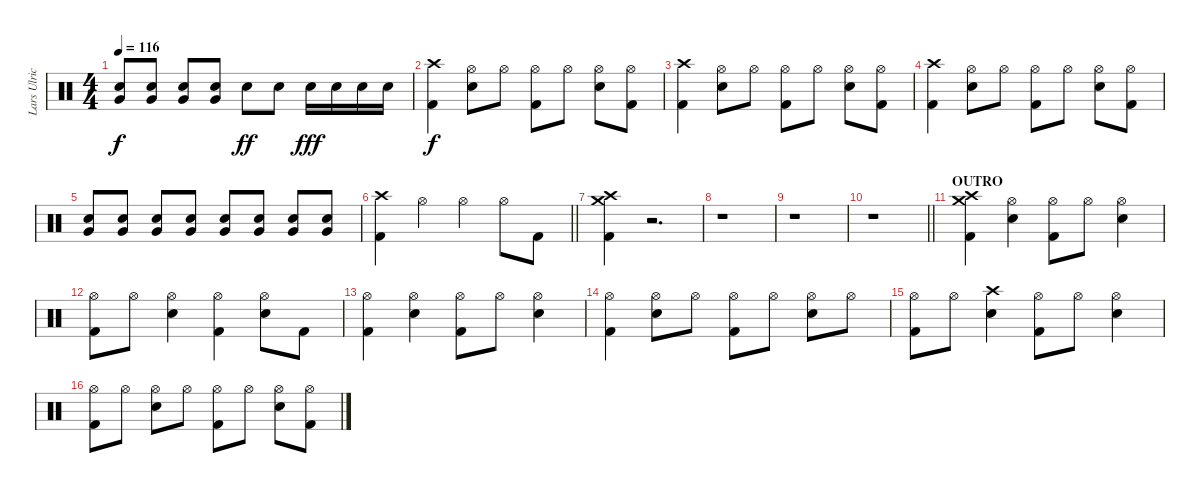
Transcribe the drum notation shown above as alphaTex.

\track ("Lars Ulrich - drums" "Lars Ulric") {instrument percussion}
\staff {score}
\articulation defaults
\ts (4 4)
\tempo 116
\clef neutral
\ks c
("Very Low Tom (hit)" "Snare (hit) 2").8{dy f} ("Very Low Tom (hit)" "Snare (hit) 2").8 ("Very Low Tom (hit)" "Snare (hit) 2").8 ("Very Low Tom (hit)" "Snare (hit) 2").8 "Snare (hit) 2".8{dy ff} "Snare (hit) 2".8 "Snare (hit) 2".16{dy fff} "Snare (hit) 2".16 "Snare (hit) 2".16 "Snare (hit) 2".16 |
("Crash high (hit)" "Kick (hit) 2").4{dy f} ("Hi-Hat (open)" "Snare (hit) 2").8 "Hi-Hat (open)".8 ("Hi-Hat (open)" "Kick (hit) 2").8 "Hi-Hat (open)".8 ("Hi-Hat (open)" "Snare (hit) 2").8 ("Hi-Hat (open)" "Kick (hit) 2").8 |
("Crash high (hit)" "Kick (hit) 2").4 ("Hi-Hat (open)" "Snare (hit) 2").8 "Hi-Hat (open)".8 ("Hi-Hat (open)" "Kick (hit) 2").8 "Hi-Hat (open)".8 ("Hi-Hat (open)" "Snare (hit) 2").8 ("Hi-Hat (open)" "Kick (hit) 2").8 |
("Crash high (hit)" "Kick (hit) 2").4 ("Hi-Hat (open)" "Snare (hit) 2").8 "Hi-Hat (open)".8 ("Hi-Hat (open)" "Kick (hit) 2").8 "Hi-Hat (open)".8 ("Hi-Hat (open)" "Snare (hit) 2").8 ("Hi-Hat (open)" "Kick (hit) 2").8 |
("Very Low Tom (hit)" "Snare (hit) 2").8 ("Very Low Tom (hit)" "Snare (hit) 2").8 ("Very Low Tom (hit)" "Snare (hit) 2").8 ("Very Low Tom (hit)" "Snare (hit) 2").8 ("Very Low Tom (hit)" "Snare (hit) 2").8 ("Very Low Tom (hit)" "Snare (hit) 2").8 ("Very Low Tom (hit)" "Snare (hit) 2").8 ("Very Low Tom (hit)" "Snare (hit) 2").8 |
\barLineRight lightlight
("Crash high (hit)" "Kick (hit) 2").4 "Hi-Hat (open)".4 "Hi-Hat (open)".4 "Hi-Hat (open)".8 "Kick (hit) 2".8 |
("Crash high (hit)" "Crash medium (hit)" "Kick (hit) 2").4 r.2{d} |
r.1 |
r.1 |
\barLineRight lightlight
r.1 |
\section ("" "OUTRO")
("Crash high (hit)" "Crash medium (hit)" "Kick (hit) 2").4 ("Hi-Hat (open)" "Snare (hit) 2").4 ("Hi-Hat (open)" "Kick (hit) 2").8 "Hi-Hat (open)".8 ("Hi-Hat (open)" "Snare (hit) 2").4 |
("Hi-Hat (open)" "Kick (hit) 2").8 "Hi-Hat (open)".8 ("Hi-Hat (open)" "Snare (hit) 2").4 ("Hi-Hat (open)" "Kick (hit) 2").4 ("Hi-Hat (open)" "Snare (hit) 2").8 "Kick (hit) 2".8 |
("Hi-Hat (open)" "Kick (hit) 2").4 ("Hi-Hat (open)" "Snare (hit) 2").4 ("Hi-Hat (open)" "Kick (hit) 2").8 "Hi-Hat (open)".8 ("Hi-Hat (open)" "Snare (hit) 2").4 |
("Hi-Hat (open)" "Kick (hit) 2").4 ("Hi-Hat (open)" "Snare (hit) 2").8 "Hi-Hat (open)".8 ("Hi-Hat (open)" "Kick (hit) 2").8 "Hi-Hat (open)".8 ("Hi-Hat (open)" "Snare (hit) 2").8 "Hi-Hat (open)".8 |
("Hi-Hat (open)" "Kick (hit) 2").8 "Hi-Hat (open)".8 ("Crash high (hit)" "Snare (hit) 2").4 ("Hi-Hat (open)" "Kick (hit) 2").8 "Hi-Hat (open)".8 ("Hi-Hat (open)" "Snare (hit) 2").4 |
("Hi-Hat (open)" "Kick (hit) 2").8 "Hi-Hat (open)".8 ("Hi-Hat (open)" "Snare (hit) 2").8 "Hi-Hat (open)".8 ("Hi-Hat (open)" "Kick (hit) 2").8 "Hi-Hat (open)".8 ("Hi-Hat (open)" "Snare (hit) 2").8 ("Hi-Hat (open)" "Kick (hit) 2").8
